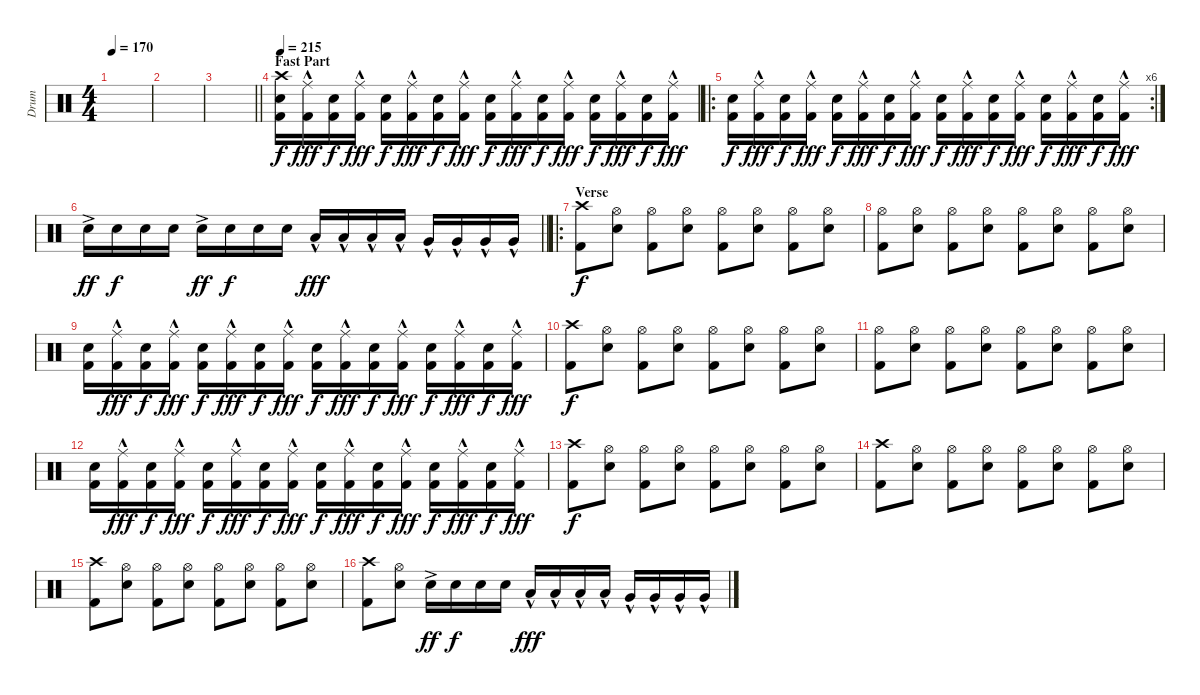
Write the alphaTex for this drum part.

\track ("Drum" "Drum") {instrument percussion}
\staff {score}
\articulation defaults
\ts (4 4)
\tempo 170
\clef neutral
\ks c
|
|
\barLineRight lightlight
|
\section ("" "Fast Part")
\tempo 215
("Crash high (hit)" "Electric Snare (hit)" "Kick (hit) 2").16{dy f} ("Ride (middle)"{hac} "Kick (hit) 2").16{dy fff} ("Electric Snare (hit)" "Kick (hit) 2").16{dy f} ("Ride (middle)"{hac} "Kick (hit) 2").16{dy fff} ("Electric Snare (hit)" "Kick (hit) 2").16{dy f} ("Ride (middle)"{hac} "Kick (hit) 2").16{dy fff} ("Electric Snare (hit)" "Kick (hit) 2").16{dy f} ("Ride (middle)"{hac} "Kick (hit) 2").16{dy fff} ("Electric Snare (hit)" "Kick (hit) 2").16{dy f} ("Ride (middle)"{hac} "Kick (hit) 2").16{dy fff} ("Electric Snare (hit)" "Kick (hit) 2").16{dy f} ("Ride (middle)"{hac} "Kick (hit) 2").16{dy fff} ("Electric Snare (hit)" "Kick (hit) 2").16{dy f} ("Ride (middle)"{hac} "Kick (hit) 2").16{dy fff} ("Electric Snare (hit)" "Kick (hit) 2").16{dy f} ("Ride (middle)"{hac} "Kick (hit) 2").16{dy fff} |
\ro
\rc 6
("Electric Snare (hit)" "Kick (hit) 2").16{dy f} ("Ride (middle)"{hac} "Kick (hit) 2").16{dy fff} ("Electric Snare (hit)" "Kick (hit) 2").16{dy f} ("Ride (middle)"{hac} "Kick (hit) 2").16{dy fff} ("Electric Snare (hit)" "Kick (hit) 2").16{dy f} ("Ride (middle)"{hac} "Kick (hit) 2").16{dy fff} ("Electric Snare (hit)" "Kick (hit) 2").16{dy f} ("Ride (middle)"{hac} "Kick (hit) 2").16{dy fff} ("Electric Snare (hit)" "Kick (hit) 2").16{dy f} ("Ride (middle)"{hac} "Kick (hit) 2").16{dy fff} ("Electric Snare (hit)" "Kick (hit) 2").16{dy f} ("Ride (middle)"{hac} "Kick (hit) 2").16{dy fff} ("Electric Snare (hit)" "Kick (hit) 2").16{dy f} ("Ride (middle)"{hac} "Kick (hit) 2").16{dy fff} ("Electric Snare (hit)" "Kick (hit) 2").16{dy f} ("Ride (middle)"{hac} "Kick (hit) 2").16{dy fff} |
\barLineRight lightlight "Electric Snare (hit)"{ac}.16{dy ff} "Electric Snare (hit)".16{dy f} "Electric Snare (hit)".16 "Electric Snare (hit)".16 "Electric Snare (hit)"{ac}.16{dy ff} "Electric Snare (hit)".16{dy f} "Electric Snare (hit)".16 "Electric Snare (hit)".16 "Low Tom (hit)"{hac}.16{dy fff} "Low Tom (hit)"{hac}.16 "Low Tom (hit)"{hac}.16 "Low Tom (hit)"{hac}.16 "Very Low Tom (hit)"{hac}.16 "Very Low Tom (hit)"{hac}.16 "Very Low Tom (hit)"{hac}.16 "Very Low Tom (hit)"{hac}.16
|
\ro
\section ("" "Verse")
("Crash high (hit)" "Kick (hit) 2").8{dy f} ("Hi-Hat (open)" "Electric Snare (hit)").8 ("Hi-Hat (open)" "Kick (hit) 2").8 ("Hi-Hat (open)" "Electric Snare (hit)").8 ("Hi-Hat (open)" "Kick (hit) 2").8 ("Hi-Hat (open)" "Electric Snare (hit)").8 ("Hi-Hat (open)" "Kick (hit) 2").8 ("Hi-Hat (open)" "Electric Snare (hit)").8 |
("Hi-Hat (open)" "Kick (hit) 2").8 ("Hi-Hat (open)" "Electric Snare (hit)").8 ("Hi-Hat (open)" "Kick (hit) 2").8 ("Hi-Hat (open)" "Electric Snare (hit)").8 ("Hi-Hat (open)" "Kick (hit) 2").8 ("Hi-Hat (open)" "Electric Snare (hit)").8 ("Hi-Hat (open)" "Kick (hit) 2").8 ("Hi-Hat (open)" "Electric Snare (hit)").8 |
("Electric Snare (hit)" "Kick (hit) 2").16 ("Ride (middle)"{hac} "Kick (hit) 2").16{dy fff} ("Electric Snare (hit)" "Kick (hit) 2").16{dy f} ("Ride (middle)"{hac} "Kick (hit) 2").16{dy fff} ("Electric Snare (hit)" "Kick (hit) 2").16{dy f} ("Ride (middle)"{hac} "Kick (hit) 2").16{dy fff} ("Electric Snare (hit)" "Kick (hit) 2").16{dy f} ("Ride (middle)"{hac} "Kick (hit) 2").16{dy fff} ("Electric Snare (hit)" "Kick (hit) 2").16{dy f} ("Ride (middle)"{hac} "Kick (hit) 2").16{dy fff} ("Electric Snare (hit)" "Kick (hit) 2").16{dy f} ("Ride (middle)"{hac} "Kick (hit) 2").16{dy fff} ("Electric Snare (hit)" "Kick (hit) 2").16{dy f} ("Ride (middle)"{hac} "Kick (hit) 2").16{dy fff} ("Electric Snare (hit)" "Kick (hit) 2").16{dy f} ("Ride (middle)"{hac} "Kick (hit) 2").16{dy fff} |
("Crash high (hit)" "Kick (hit) 2").8{dy f} ("Hi-Hat (open)" "Electric Snare (hit)").8 ("Hi-Hat (open)" "Kick (hit) 2").8 ("Hi-Hat (open)" "Electric Snare (hit)").8 ("Hi-Hat (open)" "Kick (hit) 2").8 ("Hi-Hat (open)" "Electric Snare (hit)").8 ("Hi-Hat (open)" "Kick (hit) 2").8 ("Hi-Hat (open)" "Electric Snare (hit)").8 |
("Hi-Hat (open)" "Kick (hit) 2").8 ("Hi-Hat (open)" "Electric Snare (hit)").8 ("Hi-Hat (open)" "Kick (hit) 2").8 ("Hi-Hat (open)" "Electric Snare (hit)").8 ("Hi-Hat (open)" "Kick (hit) 2").8 ("Hi-Hat (open)" "Electric Snare (hit)").8 ("Hi-Hat (open)" "Kick (hit) 2").8 ("Hi-Hat (open)" "Electric Snare (hit)").8 |
("Electric Snare (hit)" "Kick (hit) 2").16 ("Ride (middle)"{hac} "Kick (hit) 2").16{dy fff} ("Electric Snare (hit)" "Kick (hit) 2").16{dy f} ("Ride (middle)"{hac} "Kick (hit) 2").16{dy fff} ("Electric Snare (hit)" "Kick (hit) 2").16{dy f} ("Ride (middle)"{hac} "Kick (hit) 2").16{dy fff} ("Electric Snare (hit)" "Kick (hit) 2").16{dy f} ("Ride (middle)"{hac} "Kick (hit) 2").16{dy fff} ("Electric Snare (hit)" "Kick (hit) 2").16{dy f} ("Ride (middle)"{hac} "Kick (hit) 2").16{dy fff} ("Electric Snare (hit)" "Kick (hit) 2").16{dy f} ("Ride (middle)"{hac} "Kick (hit) 2").16{dy fff} ("Electric Snare (hit)" "Kick (hit) 2").16{dy f} ("Ride (middle)"{hac} "Kick (hit) 2").16{dy fff} ("Electric Snare (hit)" "Kick (hit) 2").16{dy f} ("Ride (middle)"{hac} "Kick (hit) 2").16{dy fff} |
("Crash high (hit)" "Kick (hit) 2").8{dy f} ("Hi-Hat (open)" "Electric Snare (hit)").8 ("Hi-Hat (open)" "Kick (hit) 2").8 ("Hi-Hat (open)" "Electric Snare (hit)").8 ("Hi-Hat (open)" "Kick (hit) 2").8 ("Hi-Hat (open)" "Electric Snare (hit)").8 ("Hi-Hat (open)" "Kick (hit) 2").8 ("Hi-Hat (open)" "Electric Snare (hit)").8 |
("Crash high (hit)" "Kick (hit) 2").8 ("Hi-Hat (open)" "Electric Snare (hit)").8 ("Hi-Hat (open)" "Kick (hit) 2").8 ("Hi-Hat (open)" "Electric Snare (hit)").8 ("Hi-Hat (open)" "Kick (hit) 2").8 ("Hi-Hat (open)" "Electric Snare (hit)").8 ("Hi-Hat (open)" "Kick (hit) 2").8 ("Hi-Hat (open)" "Electric Snare (hit)").8 |
("Crash high (hit)" "Kick (hit) 2").8 ("Hi-Hat (open)" "Electric Snare (hit)").8 ("Hi-Hat (open)" "Kick (hit) 2").8 ("Hi-Hat (open)" "Electric Snare (hit)").8 ("Hi-Hat (open)" "Kick (hit) 2").8 ("Hi-Hat (open)" "Electric Snare (hit)").8 ("Hi-Hat (open)" "Kick (hit) 2").8 ("Hi-Hat (open)" "Electric Snare (hit)").8 |
("Crash high (hit)" "Kick (hit) 2").8 ("Hi-Hat (open)" "Electric Snare (hit)").8 "Electric Snare (hit)"{ac}.16{dy ff} "Electric Snare (hit)".16{dy f} "Electric Snare (hit)".16 "Electric Snare (hit)".16 "Low Tom (hit)"{hac}.16{dy fff} "Low Tom (hit)"{hac}.16 "Low Tom (hit)"{hac}.16 "Low Tom (hit)"{hac}.16 "Very Low Tom (hit)"{hac}.16 "Very Low Tom (hit)"{hac}.16 "Very Low Tom (hit)"{hac}.16 "Very Low Tom (hit)"{hac}.16
